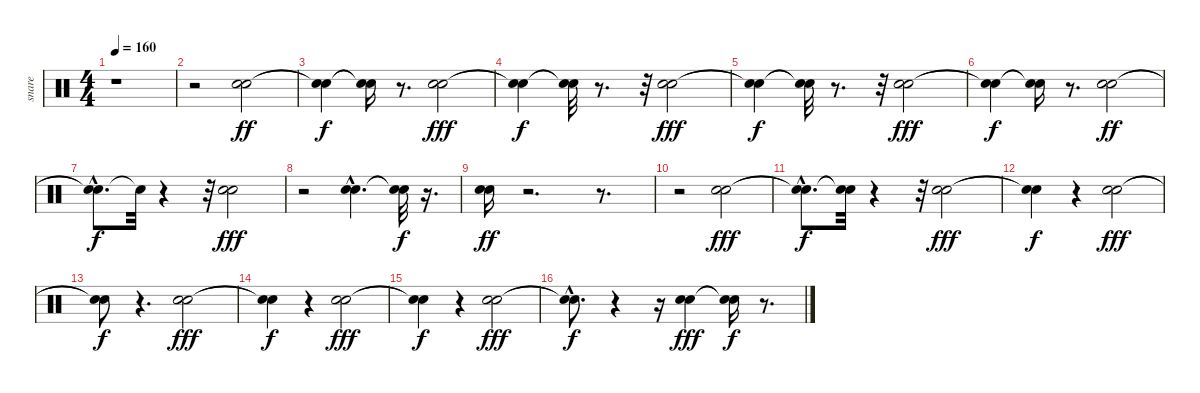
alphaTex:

\track ("snare" "snare") {instrument percussion}
\staff {score}
\articulation defaults
\ts (4 4)
\tempo 160
\clef neutral
\ks c
r.1{dy ff} |
r.2 ("Hand Clap (hit)" "Snare (hit) 2").2 |
("Snare (hit)"{t} "Snare (hit)"{t}).4{dy f} ("Snare (hit)"{t} "Snare (hit)"{t}).16 r.8{d} ("Hand Clap (hit)" "Snare (hit) 2").2{dy fff} |
("Snare (hit)"{t} "Snare (hit)"{t}).4{dy f} ("Snare (hit)"{t} "Snare (hit)"{t}).32 r.8{d} r.32 ("Hand Clap (hit)" "Snare (hit) 2").2{dy fff} |
("Snare (hit)"{t} "Snare (hit)"{t}).4{dy f} ("Snare (hit)"{t} "Snare (hit)"{t}).32 r.8{d} r.32 ("Hand Clap (hit)" "Snare (hit) 2").2{dy fff} |
("Snare (hit)"{t} "Snare (hit)"{t}).4{dy f} ("Snare (hit)"{t} "Snare (hit)"{t}).16 r.8{d} ("Hand Clap (hit)" "Snare (hit) 2").2{dy ff} |
("Snare (hit)"{hac t} "Snare (hit)"{hac t}).8{d dy f} "Snare (hit)"{t}.32 r.4 r.32 ("Hand Clap (hit)" "Snare (hit) 2").2{dy fff} |
r.2 ("Hand Clap (hit)"{hac} "Snare (hit) 2"{hac}).4{d} ("Snare (hit)"{t} "Snare (hit)"{t}).32{dy f} r.16{d} |
("Hand Clap (hit)" "Snare (hit) 2").16{dy ff} r.2{d} r.8{d} |
r.2 ("Electric Snare (hit)" "Snare (hit) 2").2{dy fff} |
("Snare (hit)"{hac t} "Snare (hit)"{hac t}).8{d dy f} ("Snare (hit)"{t} "Snare (hit)"{t}).32 r.4 r.32 ("Snare (hit) 2" "Electric Snare (hit)").2{dy fff} |
("Snare (hit)"{t} "Snare (hit)"{t}).4{dy f} r.4 ("Snare (hit) 2" "Electric Snare (hit)").2{dy fff} |
("Snare (hit)"{t} "Snare (hit)"{t}).8{dy f} r.4{d} ("Snare (hit) 2" "Electric Snare (hit)").2{dy fff} |
("Snare (hit)"{t} "Snare (hit)"{t}).4{dy f} r.4 ("Snare (hit) 2" "Electric Snare (hit)").2{dy fff} |
("Snare (hit)"{t} "Snare (hit)"{t}).4{dy f} r.4 ("Electric Snare (hit)" "Snare (hit) 2").2{dy fff} |
("Snare (hit)"{t} "Snare (hit)"{hac t}).8{d dy f} r.4 r.16 ("Snare (hit) 2" "Electric Snare (hit)").4{dy fff} ("Snare (hit)"{t} "Snare (hit)"{t}).16{dy f} r.8{d}
